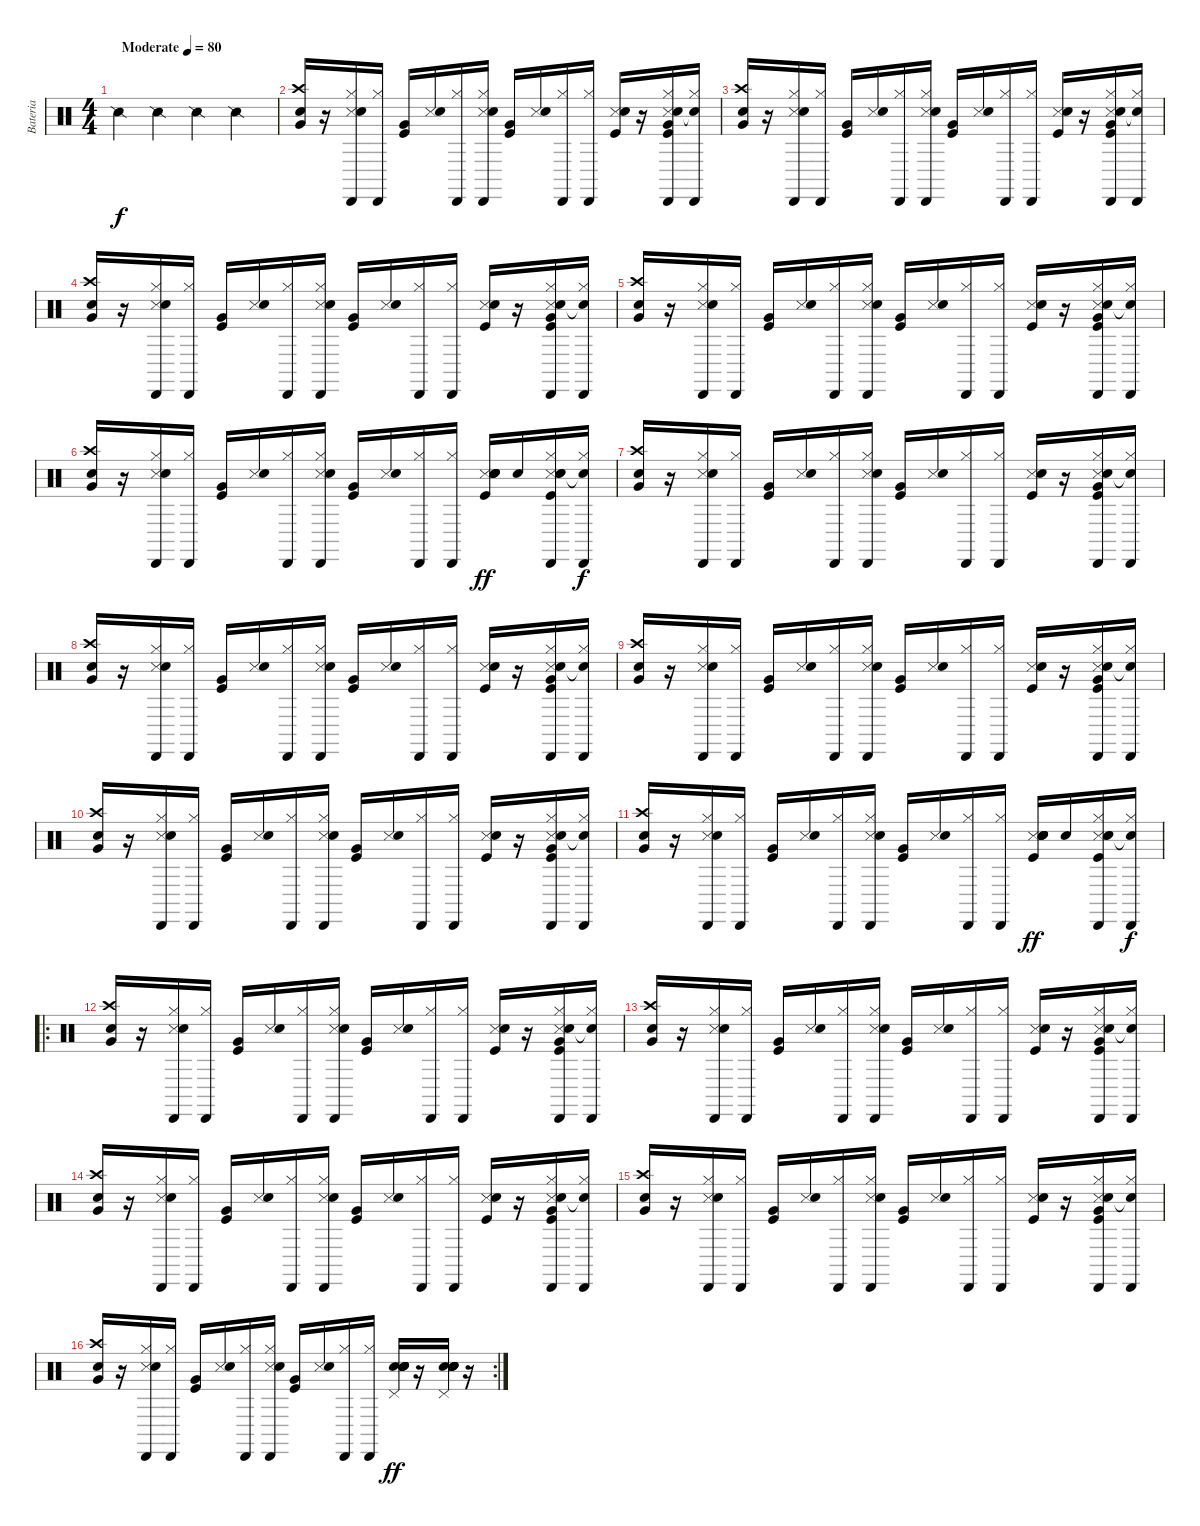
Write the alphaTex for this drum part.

\track ("Bateria" "Bateria") {instrument percussion}
\staff {score}
\articulation defaults
\ts (4 4)
\tempo (80 "Moderate")
\clef neutral
\ks c "Snare (side stick) 2".4{dy f} "Snare (side stick) 2".4 "Snare (side stick) 2".4 "Snare (side stick) 2".4
|
("Crash high (hit)" "Snare (hit) 2" "Very Low Tom (hit)").16 r.16 ("Snare (side stick) 3" "Electric Snare (hit)" "Hi-Hat (closed)" "Cabasa (hit)").16 ("Hi-Hat (closed)" "Cabasa (hit)").16 ("Kick (hit)" "Very Low Tom (hit)").16 ("Snare (side stick) 3" "Electric Snare (hit)").16 ("Hi-Hat (closed)" "Cabasa (hit)").16 ("Snare (side stick) 3" "Electric Snare (hit)" "Hi-Hat (closed)" "Cabasa (hit)").16 ("Kick (hit)" "Very Low Tom (hit)").16 ("Snare (side stick) 3" "Electric Snare (hit)").16 ("Hi-Hat (closed)" "Cabasa (hit)").16 ("Hi-Hat (closed)" "Cabasa (hit)").16 ("Kick (hit)" "Snare (side stick) 3" "Electric Snare (hit)").16 r.16 ("Snare (side stick) 3" "Kick (hit)" "Electric Snare (hit)" "Very Low Tom (hit)" "Hi-Hat (closed)" "Cabasa (hit)").16 ("Electric Snare (hit)"{t} "Hi-Hat (closed)" "Cabasa (hit)").16 |
("Crash high (hit)" "Snare (hit) 2" "Very Low Tom (hit)").16 r.16 ("Snare (side stick) 3" "Electric Snare (hit)" "Hi-Hat (closed)" "Cabasa (hit)").16 ("Hi-Hat (closed)" "Cabasa (hit)").16 ("Kick (hit)" "Very Low Tom (hit)").16 ("Snare (side stick) 3" "Electric Snare (hit)").16 ("Hi-Hat (closed)" "Cabasa (hit)").16 ("Snare (side stick) 3" "Electric Snare (hit)" "Hi-Hat (closed)" "Cabasa (hit)").16 ("Kick (hit)" "Very Low Tom (hit)").16 ("Snare (side stick) 3" "Electric Snare (hit)").16 ("Hi-Hat (closed)" "Cabasa (hit)").16 ("Hi-Hat (closed)" "Cabasa (hit)").16 ("Kick (hit)" "Snare (side stick) 3" "Electric Snare (hit)").16 r.16 ("Snare (side stick) 3" "Kick (hit)" "Electric Snare (hit)" "Very Low Tom (hit)" "Hi-Hat (closed)" "Cabasa (hit)").16 ("Electric Snare (hit)"{t} "Hi-Hat (closed)" "Cabasa (hit)").16 |
("Crash high (hit)" "Snare (hit) 2" "Very Low Tom (hit)").16 r.16 ("Snare (side stick) 3" "Electric Snare (hit)" "Hi-Hat (closed)" "Cabasa (hit)").16 ("Hi-Hat (closed)" "Cabasa (hit)").16 ("Kick (hit)" "Very Low Tom (hit)").16 ("Snare (side stick) 3" "Electric Snare (hit)").16 ("Hi-Hat (closed)" "Cabasa (hit)").16 ("Snare (side stick) 3" "Electric Snare (hit)" "Hi-Hat (closed)" "Cabasa (hit)").16 ("Kick (hit)" "Very Low Tom (hit)").16 ("Snare (side stick) 3" "Electric Snare (hit)").16 ("Hi-Hat (closed)" "Cabasa (hit)").16 ("Hi-Hat (closed)" "Cabasa (hit)").16 ("Kick (hit)" "Snare (side stick) 3" "Electric Snare (hit)").16 r.16 ("Snare (side stick) 3" "Kick (hit)" "Electric Snare (hit)" "Very Low Tom (hit)" "Hi-Hat (closed)" "Cabasa (hit)").16 ("Electric Snare (hit)"{t} "Hi-Hat (closed)" "Cabasa (hit)").16 |
("Crash high (hit)" "Snare (hit) 2" "Very Low Tom (hit)").16 r.16 ("Snare (side stick) 3" "Electric Snare (hit)" "Hi-Hat (closed)" "Cabasa (hit)").16 ("Hi-Hat (closed)" "Cabasa (hit)").16 ("Kick (hit)" "Very Low Tom (hit)").16 ("Snare (side stick) 3" "Electric Snare (hit)").16 ("Hi-Hat (closed)" "Cabasa (hit)").16 ("Snare (side stick) 3" "Electric Snare (hit)" "Hi-Hat (closed)" "Cabasa (hit)").16 ("Kick (hit)" "Very Low Tom (hit)").16 ("Snare (side stick) 3" "Electric Snare (hit)").16 ("Hi-Hat (closed)" "Cabasa (hit)").16 ("Hi-Hat (closed)" "Cabasa (hit)").16 ("Kick (hit)" "Snare (side stick) 3" "Electric Snare (hit)").16 r.16 ("Snare (side stick) 3" "Kick (hit)" "Electric Snare (hit)" "Very Low Tom (hit)" "Hi-Hat (closed)" "Cabasa (hit)").16 ("Electric Snare (hit)"{t} "Hi-Hat (closed)" "Cabasa (hit)").16 |
("Crash high (hit)" "Snare (hit) 2" "Very Low Tom (hit)").16 r.16 ("Snare (side stick) 3" "Electric Snare (hit)" "Hi-Hat (closed)" "Cabasa (hit)").16 ("Hi-Hat (closed)" "Cabasa (hit)").16 ("Kick (hit)" "Very Low Tom (hit)").16 ("Snare (side stick) 3" "Electric Snare (hit)").16 ("Hi-Hat (closed)" "Cabasa (hit)").16 ("Snare (side stick) 3" "Electric Snare (hit)" "Hi-Hat (closed)" "Cabasa (hit)").16 ("Kick (hit)" "Very Low Tom (hit)").16 ("Snare (side stick) 3" "Electric Snare (hit)").16 ("Hi-Hat (closed)" "Cabasa (hit)").16 ("Hi-Hat (closed)" "Cabasa (hit)").16 ("Kick (hit)" "Snare (side stick) 3" "Electric Snare (hit)" "Snare (hit) 2" "Snare (hit) 2" "Snare (hit) 2").16{dy ff} "Snare (hit) 2".16 ("Snare (side stick) 3" "Kick (hit)" "Electric Snare (hit)" "Snare (hit) 2" "Hi-Hat (closed)" "Cabasa (hit)").16 ("Electric Snare (hit)"{t} "Hi-Hat (closed)" "Cabasa (hit)").16{dy f} |
("Crash high (hit)" "Snare (hit) 2" "Very Low Tom (hit)").16 r.16 ("Snare (side stick) 3" "Electric Snare (hit)" "Hi-Hat (closed)" "Cabasa (hit)").16 ("Hi-Hat (closed)" "Cabasa (hit)").16 ("Kick (hit)" "Very Low Tom (hit)").16 ("Snare (side stick) 3" "Electric Snare (hit)").16 ("Hi-Hat (closed)" "Cabasa (hit)").16 ("Snare (side stick) 3" "Electric Snare (hit)" "Hi-Hat (closed)" "Cabasa (hit)").16 ("Kick (hit)" "Very Low Tom (hit)").16 ("Snare (side stick) 3" "Electric Snare (hit)").16 ("Hi-Hat (closed)" "Cabasa (hit)").16 ("Hi-Hat (closed)" "Cabasa (hit)").16 ("Kick (hit)" "Snare (side stick) 3" "Electric Snare (hit)").16 r.16 ("Snare (side stick) 3" "Kick (hit)" "Electric Snare (hit)" "Very Low Tom (hit)" "Hi-Hat (closed)" "Cabasa (hit)").16 ("Electric Snare (hit)"{t} "Hi-Hat (closed)" "Cabasa (hit)").16 |
("Crash high (hit)" "Snare (hit) 2" "Very Low Tom (hit)").16 r.16 ("Snare (side stick) 3" "Electric Snare (hit)" "Hi-Hat (closed)" "Cabasa (hit)").16 ("Hi-Hat (closed)" "Cabasa (hit)").16 ("Kick (hit)" "Very Low Tom (hit)").16 ("Snare (side stick) 3" "Electric Snare (hit)").16 ("Hi-Hat (closed)" "Cabasa (hit)").16 ("Snare (side stick) 3" "Electric Snare (hit)" "Hi-Hat (closed)" "Cabasa (hit)").16 ("Kick (hit)" "Very Low Tom (hit)").16 ("Snare (side stick) 3" "Electric Snare (hit)").16 ("Hi-Hat (closed)" "Cabasa (hit)").16 ("Hi-Hat (closed)" "Cabasa (hit)").16 ("Kick (hit)" "Snare (side stick) 3" "Electric Snare (hit)").16 r.16 ("Snare (side stick) 3" "Kick (hit)" "Electric Snare (hit)" "Very Low Tom (hit)" "Hi-Hat (closed)" "Cabasa (hit)").16 ("Electric Snare (hit)"{t} "Hi-Hat (closed)" "Cabasa (hit)").16 |
("Crash high (hit)" "Snare (hit) 2" "Very Low Tom (hit)").16 r.16 ("Snare (side stick) 3" "Electric Snare (hit)" "Hi-Hat (closed)" "Cabasa (hit)").16 ("Hi-Hat (closed)" "Cabasa (hit)").16 ("Kick (hit)" "Very Low Tom (hit)").16 ("Snare (side stick) 3" "Electric Snare (hit)").16 ("Hi-Hat (closed)" "Cabasa (hit)").16 ("Snare (side stick) 3" "Electric Snare (hit)" "Hi-Hat (closed)" "Cabasa (hit)").16 ("Kick (hit)" "Very Low Tom (hit)").16 ("Snare (side stick) 3" "Electric Snare (hit)").16 ("Hi-Hat (closed)" "Cabasa (hit)").16 ("Hi-Hat (closed)" "Cabasa (hit)").16 ("Kick (hit)" "Snare (side stick) 3" "Electric Snare (hit)").16 r.16 ("Snare (side stick) 3" "Kick (hit)" "Electric Snare (hit)" "Very Low Tom (hit)" "Hi-Hat (closed)" "Cabasa (hit)").16 ("Electric Snare (hit)"{t} "Hi-Hat (closed)" "Cabasa (hit)").16 |
("Crash high (hit)" "Snare (hit) 2" "Very Low Tom (hit)").16 r.16 ("Snare (side stick) 3" "Electric Snare (hit)" "Hi-Hat (closed)" "Cabasa (hit)").16 ("Hi-Hat (closed)" "Cabasa (hit)").16 ("Kick (hit)" "Very Low Tom (hit)").16 ("Snare (side stick) 3" "Electric Snare (hit)").16 ("Hi-Hat (closed)" "Cabasa (hit)").16 ("Snare (side stick) 3" "Electric Snare (hit)" "Hi-Hat (closed)" "Cabasa (hit)").16 ("Kick (hit)" "Very Low Tom (hit)").16 ("Snare (side stick) 3" "Electric Snare (hit)").16 ("Hi-Hat (closed)" "Cabasa (hit)").16 ("Hi-Hat (closed)" "Cabasa (hit)").16 ("Kick (hit)" "Snare (side stick) 3" "Electric Snare (hit)").16 r.16 ("Snare (side stick) 3" "Kick (hit)" "Electric Snare (hit)" "Very Low Tom (hit)" "Hi-Hat (closed)" "Cabasa (hit)").16 ("Electric Snare (hit)"{t} "Hi-Hat (closed)" "Cabasa (hit)").16 |
("Crash high (hit)" "Snare (hit) 2" "Very Low Tom (hit)").16 r.16 ("Snare (side stick) 3" "Electric Snare (hit)" "Hi-Hat (closed)" "Cabasa (hit)").16 ("Hi-Hat (closed)" "Cabasa (hit)").16 ("Kick (hit)" "Very Low Tom (hit)").16 ("Snare (side stick) 3" "Electric Snare (hit)").16 ("Hi-Hat (closed)" "Cabasa (hit)").16 ("Snare (side stick) 3" "Electric Snare (hit)" "Hi-Hat (closed)" "Cabasa (hit)").16 ("Kick (hit)" "Very Low Tom (hit)").16 ("Snare (side stick) 3" "Electric Snare (hit)").16 ("Hi-Hat (closed)" "Cabasa (hit)").16 ("Hi-Hat (closed)" "Cabasa (hit)").16 ("Kick (hit)" "Snare (side stick) 3" "Electric Snare (hit)" "Snare (hit) 2" "Snare (hit) 2" "Snare (hit) 2").16{dy ff} "Snare (hit) 2".16 ("Snare (side stick) 3" "Kick (hit)" "Electric Snare (hit)" "Snare (hit) 2" "Hi-Hat (closed)" "Cabasa (hit)").16 ("Electric Snare (hit)"{t} "Hi-Hat (closed)" "Cabasa (hit)").16{dy f} |
\ro
("Crash high (hit)" "Snare (hit) 2" "Very Low Tom (hit)").16 r.16 ("Snare (side stick) 3" "Electric Snare (hit)" "Hi-Hat (closed)" "Cabasa (hit)").16 ("Hi-Hat (closed)" "Cabasa (hit)").16 ("Kick (hit)" "Very Low Tom (hit)").16 ("Snare (side stick) 3" "Electric Snare (hit)").16 ("Hi-Hat (closed)" "Cabasa (hit)").16 ("Snare (side stick) 3" "Electric Snare (hit)" "Hi-Hat (closed)" "Cabasa (hit)").16 ("Kick (hit)" "Very Low Tom (hit)").16 ("Snare (side stick) 3" "Electric Snare (hit)").16 ("Hi-Hat (closed)" "Cabasa (hit)").16 ("Hi-Hat (closed)" "Cabasa (hit)").16 ("Kick (hit)" "Snare (side stick) 3" "Electric Snare (hit)").16 r.16 ("Snare (side stick) 3" "Kick (hit)" "Electric Snare (hit)" "Very Low Tom (hit)" "Hi-Hat (closed)" "Cabasa (hit)").16 ("Electric Snare (hit)"{t} "Hi-Hat (closed)" "Cabasa (hit)").16 |
("Crash high (hit)" "Snare (hit) 2" "Very Low Tom (hit)").16 r.16 ("Snare (side stick) 3" "Electric Snare (hit)" "Hi-Hat (closed)" "Cabasa (hit)").16 ("Hi-Hat (closed)" "Cabasa (hit)").16 ("Kick (hit)" "Very Low Tom (hit)").16 ("Snare (side stick) 3" "Electric Snare (hit)").16 ("Hi-Hat (closed)" "Cabasa (hit)").16 ("Snare (side stick) 3" "Electric Snare (hit)" "Hi-Hat (closed)" "Cabasa (hit)").16 ("Kick (hit)" "Very Low Tom (hit)").16 ("Snare (side stick) 3" "Electric Snare (hit)").16 ("Hi-Hat (closed)" "Cabasa (hit)").16 ("Hi-Hat (closed)" "Cabasa (hit)").16 ("Kick (hit)" "Snare (side stick) 3" "Electric Snare (hit)").16 r.16 ("Snare (side stick) 3" "Kick (hit)" "Electric Snare (hit)" "Very Low Tom (hit)" "Hi-Hat (closed)" "Cabasa (hit)").16 ("Electric Snare (hit)"{t} "Hi-Hat (closed)" "Cabasa (hit)").16 |
("Crash high (hit)" "Snare (hit) 2" "Very Low Tom (hit)").16 r.16 ("Snare (side stick) 3" "Electric Snare (hit)" "Hi-Hat (closed)" "Cabasa (hit)").16 ("Hi-Hat (closed)" "Cabasa (hit)").16 ("Kick (hit)" "Very Low Tom (hit)").16 ("Snare (side stick) 3" "Electric Snare (hit)").16 ("Hi-Hat (closed)" "Cabasa (hit)").16 ("Snare (side stick) 3" "Electric Snare (hit)" "Hi-Hat (closed)" "Cabasa (hit)").16 ("Kick (hit)" "Very Low Tom (hit)").16 ("Snare (side stick) 3" "Electric Snare (hit)").16 ("Hi-Hat (closed)" "Cabasa (hit)").16 ("Hi-Hat (closed)" "Cabasa (hit)").16 ("Kick (hit)" "Snare (side stick) 3" "Electric Snare (hit)").16 r.16 ("Snare (side stick) 3" "Kick (hit)" "Electric Snare (hit)" "Very Low Tom (hit)" "Hi-Hat (closed)" "Cabasa (hit)").16 ("Electric Snare (hit)"{t} "Hi-Hat (closed)" "Cabasa (hit)").16 |
("Crash high (hit)" "Snare (hit) 2" "Very Low Tom (hit)").16 r.16 ("Snare (side stick) 3" "Electric Snare (hit)" "Hi-Hat (closed)" "Cabasa (hit)").16 ("Hi-Hat (closed)" "Cabasa (hit)").16 ("Kick (hit)" "Very Low Tom (hit)").16 ("Snare (side stick) 3" "Electric Snare (hit)").16 ("Hi-Hat (closed)" "Cabasa (hit)").16 ("Snare (side stick) 3" "Electric Snare (hit)" "Hi-Hat (closed)" "Cabasa (hit)").16 ("Kick (hit)" "Very Low Tom (hit)").16 ("Snare (side stick) 3" "Electric Snare (hit)").16 ("Hi-Hat (closed)" "Cabasa (hit)").16 ("Hi-Hat (closed)" "Cabasa (hit)").16 ("Kick (hit)" "Snare (side stick) 3" "Electric Snare (hit)").16 r.16 ("Snare (side stick) 3" "Kick (hit)" "Electric Snare (hit)" "Very Low Tom (hit)" "Hi-Hat (closed)" "Cabasa (hit)").16 ("Electric Snare (hit)"{t} "Hi-Hat (closed)" "Cabasa (hit)").16 |
\rc 2
("Crash high (hit)" "Snare (hit) 2" "Very Low Tom (hit)").16 r.16 ("Snare (side stick) 3" "Electric Snare (hit)" "Hi-Hat (closed)" "Cabasa (hit)").16 ("Hi-Hat (closed)" "Cabasa (hit)").16 ("Kick (hit)" "Very Low Tom (hit)").16 ("Snare (side stick) 3" "Electric Snare (hit)").16 ("Hi-Hat (closed)" "Cabasa (hit)").16 ("Snare (side stick) 3" "Electric Snare (hit)" "Hi-Hat (closed)" "Cabasa (hit)").16 ("Kick (hit)" "Very Low Tom (hit)").16 ("Snare (side stick) 3" "Electric Snare (hit)").16 ("Hi-Hat (closed)" "Cabasa (hit)").16 ("Hi-Hat (closed)" "Cabasa (hit)").16 ("Pedal Hi-Hat (hit)" "Snare (hit) 2" "Snare (hit) 2" "Snare (hit) 2" "Snare (hit) 2" "Snare (hit) 2").16{dy ff} r.16 ("Pedal Hi-Hat (hit)" "Snare (hit) 2" "Snare (hit) 2" "Snare (hit) 2" "Snare (hit) 2" "Snare (hit) 2").16 r.16
